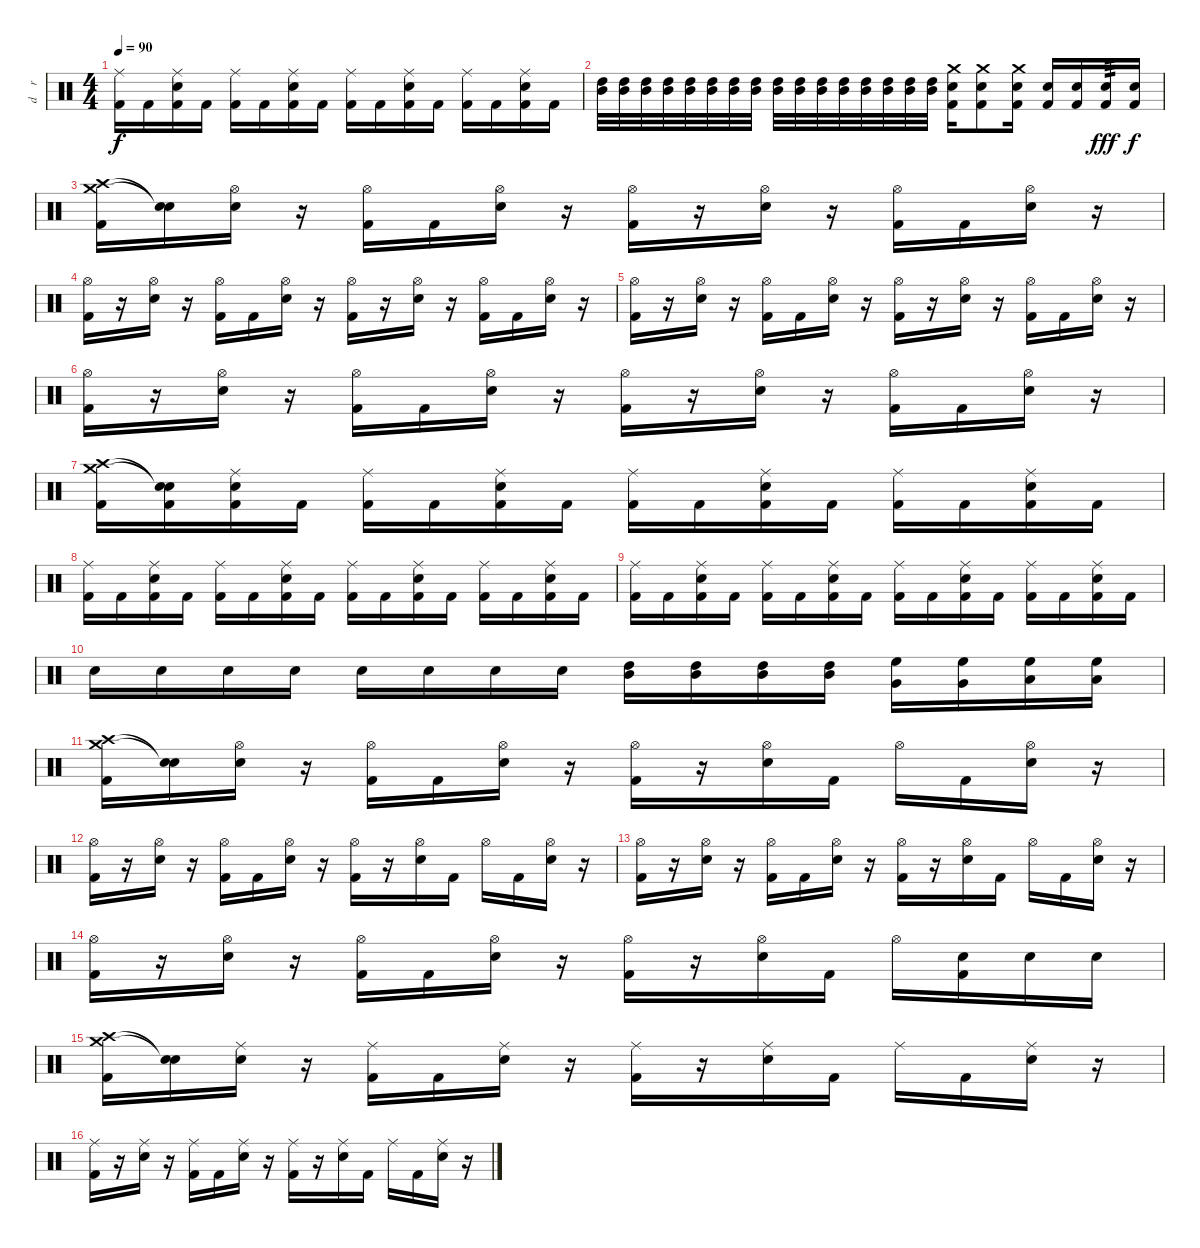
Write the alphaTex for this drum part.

\track ("d    r     u    m    s" "d    r    ") {instrument percussion}
\staff {score}
\articulation defaults
\ts (4 4)
\tempo 90
\clef neutral
\ks c
("Ride (middle)" "Kick (hit) 2").16{dy f} "Kick (hit) 2".16 ("Ride (middle)" "Electric Snare (hit)" "Kick (hit) 2").16 "Kick (hit) 2".16 ("Ride (middle)" "Kick (hit) 2").16 "Kick (hit) 2".16 ("Ride (middle)" "Electric Snare (hit)" "Kick (hit) 2").16 "Kick (hit) 2".16 ("Ride (middle)" "Kick (hit) 2").16 "Kick (hit) 2".16 ("Ride (middle)" "Electric Snare (hit)" "Kick (hit) 2").16 "Kick (hit) 2".16 ("Ride (middle)" "Kick (hit) 2").16 "Kick (hit) 2".16 ("Ride (middle)" "Electric Snare (hit)" "Kick (hit) 2").16 "Kick (hit) 2".16 |
("High Tom (hit)" "Mid Tom (hit)").32{volume 15 balance 0} ("High Tom (hit)" "Mid Tom (hit)").32 ("High Tom (hit)" "Mid Tom (hit)").32 ("High Tom (hit)" "Mid Tom (hit)").32 ("High Tom (hit)" "Mid Tom (hit)").32 ("High Tom (hit)" "Mid Tom (hit)").32 ("High Tom (hit)" "Mid Tom (hit)").32 ("High Tom (hit)" "Mid Tom (hit)").32 ("High Tom (hit)" "Mid Tom (hit)").32{volume 15 balance 16} ("High Tom (hit)" "Mid Tom (hit)").32 ("High Tom (hit)" "Mid Tom (hit)").32 ("High Tom (hit)" "Mid Tom (hit)").32 ("High Tom (hit)" "Mid Tom (hit)").32 ("High Tom (hit)" "Mid Tom (hit)").32 ("High Tom (hit)" "Mid Tom (hit)").32 ("High Tom (hit)" "Mid Tom (hit)").32 ("Crash medium (hit)" "Electric Snare (hit)" "Kick (hit) 2").16{volume 15 balance 8} ("Crash medium (hit)" "Electric Snare (hit)" "Kick (hit) 2").8 ("Crash medium (hit)" "Electric Snare (hit)" "Kick (hit) 2").16 ("Electric Snare (hit)" "Kick (hit) 2").16 ("Electric Snare (hit)" "Kick (hit) 2").16 ("Electric Snare (hit)" "Kick (hit) 2").16{tp 3 dy fff} ("Electric Snare (hit)" "Kick (hit) 2").16{dy f} |
("Crash high (hit)" "Crash medium (hit)" "Kick (hit) 2").16 ("Snare (hit)"{t} "Snare (hit)"{t}).16 ("Hi-Hat (open)" "Electric Snare (hit)").16 r.16 ("Hi-Hat (open)" "Kick (hit) 2").16 "Kick (hit) 2".16 ("Hi-Hat (open)" "Electric Snare (hit)").16 r.16 ("Hi-Hat (open)" "Kick (hit) 2").16 r.16 ("Hi-Hat (open)" "Electric Snare (hit)").16 r.16 ("Hi-Hat (open)" "Kick (hit) 2").16 "Kick (hit) 2".16 ("Hi-Hat (open)" "Electric Snare (hit)").16 r.16 |
("Hi-Hat (open)" "Kick (hit) 2").16 r.16 ("Hi-Hat (open)" "Electric Snare (hit)").16 r.16 ("Hi-Hat (open)" "Kick (hit) 2").16 "Kick (hit) 2".16 ("Hi-Hat (open)" "Electric Snare (hit)").16 r.16 ("Hi-Hat (open)" "Kick (hit) 2").16 r.16 ("Hi-Hat (open)" "Electric Snare (hit)").16 r.16 ("Hi-Hat (open)" "Kick (hit) 2").16 "Kick (hit) 2".16 ("Hi-Hat (open)" "Electric Snare (hit)").16 r.16 |
("Hi-Hat (open)" "Kick (hit) 2").16 r.16 ("Hi-Hat (open)" "Electric Snare (hit)").16 r.16 ("Hi-Hat (open)" "Kick (hit) 2").16 "Kick (hit) 2".16 ("Hi-Hat (open)" "Electric Snare (hit)").16 r.16 ("Hi-Hat (open)" "Kick (hit) 2").16 r.16 ("Hi-Hat (open)" "Electric Snare (hit)").16 r.16 ("Hi-Hat (open)" "Kick (hit) 2").16 "Kick (hit) 2".16 ("Hi-Hat (open)" "Electric Snare (hit)").16 r.16 |
("Hi-Hat (open)" "Kick (hit) 2").16 r.16 ("Hi-Hat (open)" "Electric Snare (hit)").16 r.16 ("Hi-Hat (open)" "Kick (hit) 2").16 "Kick (hit) 2".16 ("Hi-Hat (open)" "Electric Snare (hit)").16 r.16 ("Hi-Hat (open)" "Kick (hit) 2").16 r.16 ("Hi-Hat (open)" "Electric Snare (hit)").16 r.16 ("Hi-Hat (open)" "Kick (hit) 2").16 "Kick (hit) 2".16 ("Hi-Hat (open)" "Electric Snare (hit)").16 r.16 |
("Crash high (hit)" "Crash medium (hit)" "Kick (hit) 2").16 ("Snare (hit)"{t} "Snare (hit)"{t} "Kick (hit) 2").16 ("Ride (middle)" "Electric Snare (hit)" "Kick (hit) 2").16 "Kick (hit) 2".16 ("Ride (middle)" "Kick (hit) 2").16 "Kick (hit) 2".16 ("Ride (middle)" "Electric Snare (hit)" "Kick (hit) 2").16 "Kick (hit) 2".16 ("Ride (middle)" "Kick (hit) 2").16 "Kick (hit) 2".16 ("Ride (middle)" "Electric Snare (hit)" "Kick (hit) 2").16 "Kick (hit) 2".16 ("Ride (middle)" "Kick (hit) 2").16 "Kick (hit) 2".16 ("Ride (middle)" "Electric Snare (hit)" "Kick (hit) 2").16 "Kick (hit) 2".16 |
("Ride (middle)" "Kick (hit) 2").16 "Kick (hit) 2".16 ("Ride (middle)" "Electric Snare (hit)" "Kick (hit) 2").16 "Kick (hit) 2".16 ("Ride (middle)" "Kick (hit) 2").16 "Kick (hit) 2".16 ("Ride (middle)" "Electric Snare (hit)" "Kick (hit) 2").16 "Kick (hit) 2".16 ("Ride (middle)" "Kick (hit) 2").16 "Kick (hit) 2".16 ("Ride (middle)" "Electric Snare (hit)" "Kick (hit) 2").16 "Kick (hit) 2".16 ("Ride (middle)" "Kick (hit) 2").16 "Kick (hit) 2".16 ("Ride (middle)" "Electric Snare (hit)" "Kick (hit) 2").16 "Kick (hit) 2".16 |
("Ride (middle)" "Kick (hit) 2").16 "Kick (hit) 2".16 ("Ride (middle)" "Electric Snare (hit)" "Kick (hit) 2").16 "Kick (hit) 2".16 ("Ride (middle)" "Kick (hit) 2").16 "Kick (hit) 2".16 ("Ride (middle)" "Electric Snare (hit)" "Kick (hit) 2").16 "Kick (hit) 2".16 ("Ride (middle)" "Kick (hit) 2").16 "Kick (hit) 2".16 ("Ride (middle)" "Electric Snare (hit)" "Kick (hit) 2").16 "Kick (hit) 2".16 ("Ride (middle)" "Kick (hit) 2").16 "Kick (hit) 2".16 ("Ride (middle)" "Electric Snare (hit)" "Kick (hit) 2").16 "Kick (hit) 2".16 |
"Electric Snare (hit)".16 "Electric Snare (hit)".16 "Electric Snare (hit)".16 "Electric Snare (hit)".16 "Electric Snare (hit)".16 "Electric Snare (hit)".16 "Electric Snare (hit)".16 "Electric Snare (hit)".16 ("Mid Tom (hit)" "High Tom (hit)").16 ("Mid Tom (hit)" "High Tom (hit)").16 ("Mid Tom (hit)" "High Tom (hit)").16 ("Mid Tom (hit)" "High Tom (hit)").16 ("Very Low Tom (hit)" "High Floor Tom (hit)").16 ("Very Low Tom (hit)" "High Floor Tom (hit)").16 ("Low Floor Tom (hit)" "High Floor Tom (hit)").16 ("Low Floor Tom (hit)" "High Floor Tom (hit)").16 |
("Crash high (hit)" "Crash medium (hit)" "Kick (hit) 2").16 ("Snare (hit)"{t} "Snare (hit)"{t}).16 ("Hi-Hat (open)" "Electric Snare (hit)").16 r.16 ("Hi-Hat (open)" "Kick (hit) 2").16 "Kick (hit) 2".16 ("Hi-Hat (open)" "Electric Snare (hit)").16 r.16 ("Hi-Hat (open)" "Kick (hit) 2").16 r.16 ("Hi-Hat (open)" "Electric Snare (hit)").16 "Kick (hit) 2".16 "Hi-Hat (open)".16 "Kick (hit) 2".16 ("Hi-Hat (open)" "Electric Snare (hit)").16 r.16 |
("Hi-Hat (open)" "Kick (hit) 2").16 r.16 ("Hi-Hat (open)" "Electric Snare (hit)").16 r.16 ("Hi-Hat (open)" "Kick (hit) 2").16 "Kick (hit) 2".16 ("Hi-Hat (open)" "Electric Snare (hit)").16 r.16 ("Hi-Hat (open)" "Kick (hit) 2").16 r.16 ("Hi-Hat (open)" "Electric Snare (hit)").16 "Kick (hit) 2".16 "Hi-Hat (open)".16 "Kick (hit) 2".16 ("Hi-Hat (open)" "Electric Snare (hit)").16 r.16 |
("Hi-Hat (open)" "Kick (hit) 2").16 r.16 ("Hi-Hat (open)" "Electric Snare (hit)").16 r.16 ("Hi-Hat (open)" "Kick (hit) 2").16 "Kick (hit) 2".16 ("Hi-Hat (open)" "Electric Snare (hit)").16 r.16 ("Hi-Hat (open)" "Kick (hit) 2").16 r.16 ("Hi-Hat (open)" "Electric Snare (hit)").16 "Kick (hit) 2".16 "Hi-Hat (open)".16 "Kick (hit) 2".16 ("Hi-Hat (open)" "Electric Snare (hit)").16 r.16 |
("Hi-Hat (open)" "Kick (hit) 2").16 r.16 ("Hi-Hat (open)" "Electric Snare (hit)").16 r.16 ("Hi-Hat (open)" "Kick (hit) 2").16 "Kick (hit) 2".16 ("Hi-Hat (open)" "Electric Snare (hit)").16 r.16 ("Hi-Hat (open)" "Kick (hit) 2").16 r.16 ("Hi-Hat (open)" "Electric Snare (hit)").16 "Kick (hit) 2".16 "Hi-Hat (open)".16 ("Electric Snare (hit)" "Kick (hit) 2").16 "Electric Snare (hit)".16 "Electric Snare (hit)".16 |
("Crash high (hit)" "Crash medium (hit)" "Kick (hit) 2").16 ("Snare (hit)"{t} "Snare (hit)"{t}).16 ("Ride (middle)" "Electric Snare (hit)").16 r.16 ("Ride (middle)" "Kick (hit) 2").16 "Kick (hit) 2".16 ("Ride (middle)" "Electric Snare (hit)").16 r.16 ("Ride (middle)" "Kick (hit) 2").16 r.16 ("Ride (middle)" "Electric Snare (hit)").16 "Kick (hit) 2".16 "Ride (middle)".16 "Kick (hit) 2".16 ("Ride (middle)" "Electric Snare (hit)").16 r.16 |
("Ride (middle)" "Kick (hit) 2").16 r.16 ("Ride (middle)" "Electric Snare (hit)").16 r.16 ("Ride (middle)" "Kick (hit) 2").16 "Kick (hit) 2".16 ("Ride (middle)" "Electric Snare (hit)").16 r.16 ("Ride (middle)" "Kick (hit) 2").16 r.16 ("Ride (middle)" "Electric Snare (hit)").16 "Kick (hit) 2".16 "Ride (middle)".16 "Kick (hit) 2".16 ("Ride (middle)" "Electric Snare (hit)").16 r.16
